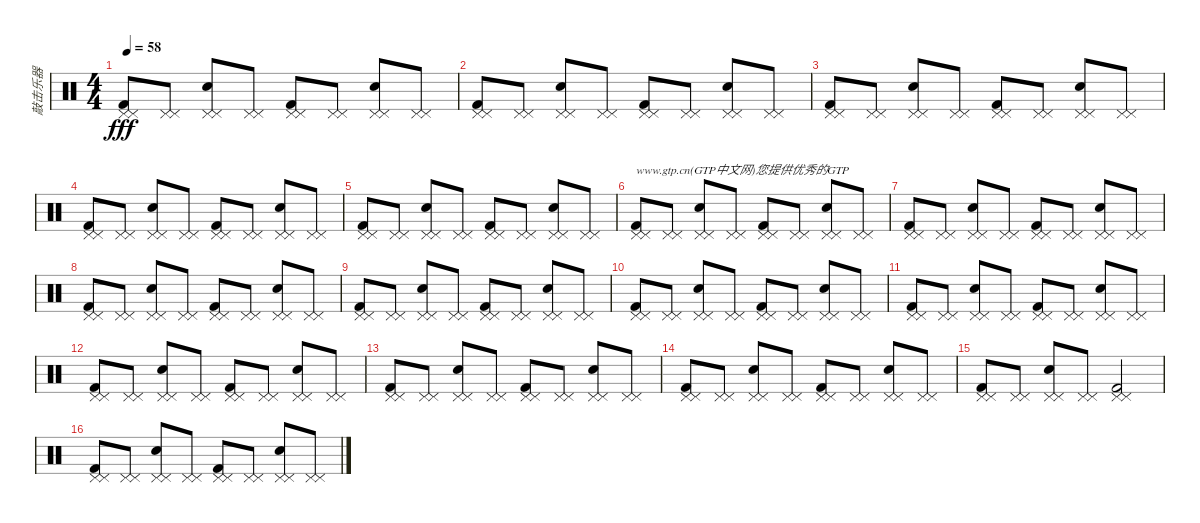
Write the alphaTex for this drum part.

\track ("敲击乐器" "敲击乐器") {instrument percussion}
\staff {score}
\articulation defaults
\ts (4 4)
\tempo 58
\clef neutral
\ks c
("Pedal Hi-Hat (hit)" "Pedal Hi-Hat (hit)" "Kick (hit) 2").8{dy fff} ("Pedal Hi-Hat (hit)" "Pedal Hi-Hat (hit)").8 ("Pedal Hi-Hat (hit)" "Pedal Hi-Hat (hit)" "Snare (hit) 2").8 ("Pedal Hi-Hat (hit)" "Pedal Hi-Hat (hit)").8 ("Pedal Hi-Hat (hit)" "Pedal Hi-Hat (hit)" "Kick (hit) 2").8 ("Pedal Hi-Hat (hit)" "Pedal Hi-Hat (hit)").8 ("Pedal Hi-Hat (hit)" "Pedal Hi-Hat (hit)" "Snare (hit) 2").8 ("Pedal Hi-Hat (hit)" "Pedal Hi-Hat (hit)").8 |
("Pedal Hi-Hat (hit)" "Pedal Hi-Hat (hit)" "Kick (hit) 2").8 ("Pedal Hi-Hat (hit)" "Pedal Hi-Hat (hit)").8 ("Pedal Hi-Hat (hit)" "Pedal Hi-Hat (hit)" "Snare (hit) 2").8 ("Pedal Hi-Hat (hit)" "Pedal Hi-Hat (hit)").8 ("Pedal Hi-Hat (hit)" "Pedal Hi-Hat (hit)" "Kick (hit) 2").8 ("Pedal Hi-Hat (hit)" "Pedal Hi-Hat (hit)").8 ("Pedal Hi-Hat (hit)" "Pedal Hi-Hat (hit)" "Snare (hit) 2").8 ("Pedal Hi-Hat (hit)" "Pedal Hi-Hat (hit)").8 |
("Pedal Hi-Hat (hit)" "Pedal Hi-Hat (hit)" "Kick (hit) 2").8 ("Pedal Hi-Hat (hit)" "Pedal Hi-Hat (hit)").8 ("Pedal Hi-Hat (hit)" "Pedal Hi-Hat (hit)" "Snare (hit) 2").8 ("Pedal Hi-Hat (hit)" "Pedal Hi-Hat (hit)").8 ("Pedal Hi-Hat (hit)" "Pedal Hi-Hat (hit)" "Kick (hit) 2").8 ("Pedal Hi-Hat (hit)" "Pedal Hi-Hat (hit)").8 ("Pedal Hi-Hat (hit)" "Pedal Hi-Hat (hit)" "Snare (hit) 2").8 ("Pedal Hi-Hat (hit)" "Pedal Hi-Hat (hit)").8 |
("Pedal Hi-Hat (hit)" "Pedal Hi-Hat (hit)" "Kick (hit) 2").8 ("Pedal Hi-Hat (hit)" "Pedal Hi-Hat (hit)").8 ("Pedal Hi-Hat (hit)" "Pedal Hi-Hat (hit)" "Snare (hit) 2").8 ("Pedal Hi-Hat (hit)" "Pedal Hi-Hat (hit)").8 ("Pedal Hi-Hat (hit)" "Pedal Hi-Hat (hit)" "Kick (hit) 2").8 ("Pedal Hi-Hat (hit)" "Pedal Hi-Hat (hit)").8 ("Pedal Hi-Hat (hit)" "Pedal Hi-Hat (hit)" "Snare (hit) 2").8 ("Pedal Hi-Hat (hit)" "Pedal Hi-Hat (hit)").8 |
("Pedal Hi-Hat (hit)" "Pedal Hi-Hat (hit)" "Kick (hit) 2").8 ("Pedal Hi-Hat (hit)" "Pedal Hi-Hat (hit)").8 ("Pedal Hi-Hat (hit)" "Pedal Hi-Hat (hit)" "Snare (hit) 2").8 ("Pedal Hi-Hat (hit)" "Pedal Hi-Hat (hit)").8 ("Pedal Hi-Hat (hit)" "Pedal Hi-Hat (hit)" "Kick (hit) 2").8 ("Pedal Hi-Hat (hit)" "Pedal Hi-Hat (hit)").8 ("Pedal Hi-Hat (hit)" "Pedal Hi-Hat (hit)" "Snare (hit) 2").8 ("Pedal Hi-Hat (hit)" "Pedal Hi-Hat (hit)").8 |
("Pedal Hi-Hat (hit)" "Pedal Hi-Hat (hit)" "Kick (hit) 2").8{txt "www.gtp.cn(GTP中文网)您提供优秀的GTP"} ("Pedal Hi-Hat (hit)" "Pedal Hi-Hat (hit)").8 ("Pedal Hi-Hat (hit)" "Pedal Hi-Hat (hit)" "Snare (hit) 2").8 ("Pedal Hi-Hat (hit)" "Pedal Hi-Hat (hit)").8 ("Pedal Hi-Hat (hit)" "Pedal Hi-Hat (hit)" "Kick (hit) 2").8 ("Pedal Hi-Hat (hit)" "Pedal Hi-Hat (hit)").8 ("Pedal Hi-Hat (hit)" "Pedal Hi-Hat (hit)" "Snare (hit) 2").8 ("Pedal Hi-Hat (hit)" "Pedal Hi-Hat (hit)").8 |
("Pedal Hi-Hat (hit)" "Pedal Hi-Hat (hit)" "Kick (hit) 2").8 ("Pedal Hi-Hat (hit)" "Pedal Hi-Hat (hit)").8 ("Pedal Hi-Hat (hit)" "Pedal Hi-Hat (hit)" "Snare (hit) 2").8 ("Pedal Hi-Hat (hit)" "Pedal Hi-Hat (hit)").8 ("Pedal Hi-Hat (hit)" "Pedal Hi-Hat (hit)" "Kick (hit) 2").8 ("Pedal Hi-Hat (hit)" "Pedal Hi-Hat (hit)").8 ("Pedal Hi-Hat (hit)" "Pedal Hi-Hat (hit)" "Snare (hit) 2").8 ("Pedal Hi-Hat (hit)" "Pedal Hi-Hat (hit)").8 |
("Pedal Hi-Hat (hit)" "Pedal Hi-Hat (hit)" "Kick (hit) 2").8 ("Pedal Hi-Hat (hit)" "Pedal Hi-Hat (hit)").8 ("Pedal Hi-Hat (hit)" "Pedal Hi-Hat (hit)" "Snare (hit) 2").8 ("Pedal Hi-Hat (hit)" "Pedal Hi-Hat (hit)").8 ("Pedal Hi-Hat (hit)" "Pedal Hi-Hat (hit)" "Kick (hit) 2").8 ("Pedal Hi-Hat (hit)" "Pedal Hi-Hat (hit)").8 ("Pedal Hi-Hat (hit)" "Pedal Hi-Hat (hit)" "Snare (hit) 2").8 ("Pedal Hi-Hat (hit)" "Pedal Hi-Hat (hit)").8 |
("Pedal Hi-Hat (hit)" "Pedal Hi-Hat (hit)" "Kick (hit) 2").8 ("Pedal Hi-Hat (hit)" "Pedal Hi-Hat (hit)").8 ("Pedal Hi-Hat (hit)" "Pedal Hi-Hat (hit)" "Snare (hit) 2").8 ("Pedal Hi-Hat (hit)" "Pedal Hi-Hat (hit)").8 ("Pedal Hi-Hat (hit)" "Pedal Hi-Hat (hit)" "Kick (hit) 2").8 ("Pedal Hi-Hat (hit)" "Pedal Hi-Hat (hit)").8 ("Pedal Hi-Hat (hit)" "Pedal Hi-Hat (hit)" "Snare (hit) 2").8 ("Pedal Hi-Hat (hit)" "Pedal Hi-Hat (hit)").8 |
("Pedal Hi-Hat (hit)" "Pedal Hi-Hat (hit)" "Kick (hit) 2").8 ("Pedal Hi-Hat (hit)" "Pedal Hi-Hat (hit)").8 ("Pedal Hi-Hat (hit)" "Pedal Hi-Hat (hit)" "Snare (hit) 2").8 ("Pedal Hi-Hat (hit)" "Pedal Hi-Hat (hit)").8 ("Pedal Hi-Hat (hit)" "Pedal Hi-Hat (hit)" "Kick (hit) 2").8 ("Pedal Hi-Hat (hit)" "Pedal Hi-Hat (hit)").8 ("Pedal Hi-Hat (hit)" "Pedal Hi-Hat (hit)" "Snare (hit) 2").8 ("Pedal Hi-Hat (hit)" "Pedal Hi-Hat (hit)").8 |
("Pedal Hi-Hat (hit)" "Pedal Hi-Hat (hit)" "Kick (hit) 2").8 ("Pedal Hi-Hat (hit)" "Pedal Hi-Hat (hit)").8 ("Pedal Hi-Hat (hit)" "Pedal Hi-Hat (hit)" "Snare (hit) 2").8 ("Pedal Hi-Hat (hit)" "Pedal Hi-Hat (hit)").8 ("Pedal Hi-Hat (hit)" "Pedal Hi-Hat (hit)" "Kick (hit) 2").8 ("Pedal Hi-Hat (hit)" "Pedal Hi-Hat (hit)").8 ("Pedal Hi-Hat (hit)" "Pedal Hi-Hat (hit)" "Snare (hit) 2").8 ("Pedal Hi-Hat (hit)" "Pedal Hi-Hat (hit)").8 |
("Pedal Hi-Hat (hit)" "Pedal Hi-Hat (hit)" "Kick (hit) 2").8 ("Pedal Hi-Hat (hit)" "Pedal Hi-Hat (hit)").8 ("Pedal Hi-Hat (hit)" "Pedal Hi-Hat (hit)" "Snare (hit) 2").8 ("Pedal Hi-Hat (hit)" "Pedal Hi-Hat (hit)").8 ("Pedal Hi-Hat (hit)" "Pedal Hi-Hat (hit)" "Kick (hit) 2").8 ("Pedal Hi-Hat (hit)" "Pedal Hi-Hat (hit)").8 ("Pedal Hi-Hat (hit)" "Pedal Hi-Hat (hit)" "Snare (hit) 2").8 ("Pedal Hi-Hat (hit)" "Pedal Hi-Hat (hit)").8 |
("Pedal Hi-Hat (hit)" "Pedal Hi-Hat (hit)" "Kick (hit) 2").8 ("Pedal Hi-Hat (hit)" "Pedal Hi-Hat (hit)").8 ("Pedal Hi-Hat (hit)" "Pedal Hi-Hat (hit)" "Snare (hit) 2").8 ("Pedal Hi-Hat (hit)" "Pedal Hi-Hat (hit)").8 ("Pedal Hi-Hat (hit)" "Pedal Hi-Hat (hit)" "Kick (hit) 2").8 ("Pedal Hi-Hat (hit)" "Pedal Hi-Hat (hit)").8 ("Pedal Hi-Hat (hit)" "Pedal Hi-Hat (hit)" "Snare (hit) 2").8 ("Pedal Hi-Hat (hit)" "Pedal Hi-Hat (hit)").8 |
("Pedal Hi-Hat (hit)" "Pedal Hi-Hat (hit)" "Kick (hit) 2").8 ("Pedal Hi-Hat (hit)" "Pedal Hi-Hat (hit)").8 ("Pedal Hi-Hat (hit)" "Pedal Hi-Hat (hit)" "Snare (hit) 2").8 ("Pedal Hi-Hat (hit)" "Pedal Hi-Hat (hit)").8 ("Pedal Hi-Hat (hit)" "Pedal Hi-Hat (hit)" "Kick (hit) 2").8 ("Pedal Hi-Hat (hit)" "Pedal Hi-Hat (hit)").8 ("Pedal Hi-Hat (hit)" "Pedal Hi-Hat (hit)" "Snare (hit) 2").8 ("Pedal Hi-Hat (hit)" "Pedal Hi-Hat (hit)").8 |
("Pedal Hi-Hat (hit)" "Pedal Hi-Hat (hit)" "Kick (hit) 2").8 ("Pedal Hi-Hat (hit)" "Pedal Hi-Hat (hit)").8 ("Pedal Hi-Hat (hit)" "Pedal Hi-Hat (hit)" "Snare (hit) 2").8 ("Pedal Hi-Hat (hit)" "Pedal Hi-Hat (hit)").8 ("Pedal Hi-Hat (hit)" "Pedal Hi-Hat (hit)" "Kick (hit) 2").2 |
("Pedal Hi-Hat (hit)" "Pedal Hi-Hat (hit)" "Kick (hit) 2").8 ("Pedal Hi-Hat (hit)" "Pedal Hi-Hat (hit)").8 ("Pedal Hi-Hat (hit)" "Pedal Hi-Hat (hit)" "Snare (hit) 2").8 ("Pedal Hi-Hat (hit)" "Pedal Hi-Hat (hit)").8 ("Pedal Hi-Hat (hit)" "Pedal Hi-Hat (hit)" "Kick (hit) 2").8 ("Pedal Hi-Hat (hit)" "Pedal Hi-Hat (hit)").8 ("Pedal Hi-Hat (hit)" "Pedal Hi-Hat (hit)" "Snare (hit) 2").8 ("Pedal Hi-Hat (hit)" "Pedal Hi-Hat (hit)").8
